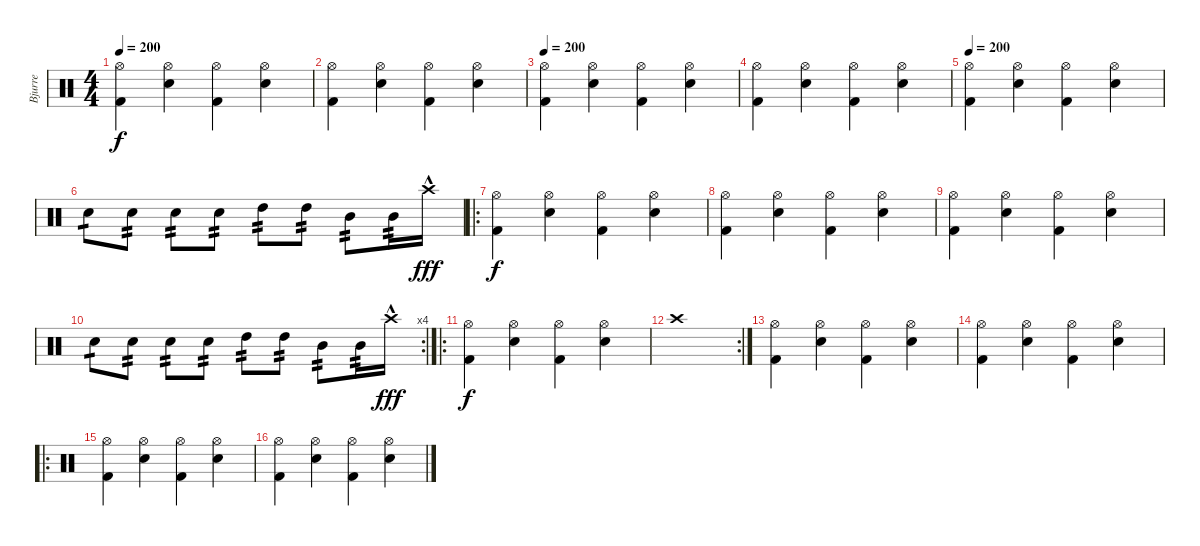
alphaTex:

\track ("Bjurre" "Bjurre") {instrument percussion}
\staff
\articulation defaults
\ts (4 4)
\tempo 200
\clef neutral
\ks c
("Hi-Hat (open)" "Kick (hit) 2").4{dy f} ("Hi-Hat (open)" "Electric Snare (hit)").4 ("Hi-Hat (open)" "Kick (hit) 2").4 ("Hi-Hat (open)" "Electric Snare (hit)").4 |
("Hi-Hat (open)" "Kick (hit) 2").4 ("Hi-Hat (open)" "Electric Snare (hit)").4 ("Hi-Hat (open)" "Kick (hit) 2").4 ("Hi-Hat (open)" "Electric Snare (hit)").4 |
\tempo 200
("Hi-Hat (open)" "Kick (hit) 2").4 ("Hi-Hat (open)" "Electric Snare (hit)").4 ("Hi-Hat (open)" "Kick (hit) 2").4 ("Hi-Hat (open)" "Electric Snare (hit)").4 |
("Hi-Hat (open)" "Kick (hit) 2").4 ("Hi-Hat (open)" "Electric Snare (hit)").4 ("Hi-Hat (open)" "Kick (hit) 2").4 ("Hi-Hat (open)" "Electric Snare (hit)").4 |
\tempo 200
("Hi-Hat (open)" "Kick (hit) 2").4 ("Hi-Hat (open)" "Electric Snare (hit)").4 ("Hi-Hat (open)" "Kick (hit) 2").4 ("Hi-Hat (open)" "Electric Snare (hit)").4 |
"Electric Snare (hit)".8{tp 1} "Electric Snare (hit)".8{tp 2} "Electric Snare (hit)".8{tp 2} "Electric Snare (hit)".8{tp 2} "High Tom (hit)".8{tp 2} "High Tom (hit)".8{tp 2} "Mid Tom (hit)".8{tp 2} "Mid Tom (hit)".16{tp 2} "Crash high (hit)"{hac}.16{dy fff} |
\ro
("Hi-Hat (open)" "Kick (hit) 2").4{dy f} ("Hi-Hat (open)" "Electric Snare (hit)").4 ("Hi-Hat (open)" "Kick (hit) 2").4 ("Hi-Hat (open)" "Electric Snare (hit)").4 |
("Hi-Hat (open)" "Kick (hit) 2").4 ("Hi-Hat (open)" "Electric Snare (hit)").4 ("Hi-Hat (open)" "Kick (hit) 2").4 ("Hi-Hat (open)" "Electric Snare (hit)").4 |
("Hi-Hat (open)" "Kick (hit) 2").4 ("Hi-Hat (open)" "Electric Snare (hit)").4 ("Hi-Hat (open)" "Kick (hit) 2").4 ("Hi-Hat (open)" "Electric Snare (hit)").4 |
\rc 4 "Electric Snare (hit)".8{tp 1} "Electric Snare (hit)".8{tp 2} "Electric Snare (hit)".8{tp 2} "Electric Snare (hit)".8{tp 2} "High Tom (hit)".8{tp 2} "High Tom (hit)".8{tp 2} "Mid Tom (hit)".8{tp 2} "Mid Tom (hit)".16{tp 2} "Crash high (hit)"{hac}.16{dy fff}
|
\ro
("Hi-Hat (open)" "Kick (hit) 2").4{dy f} ("Hi-Hat (open)" "Electric Snare (hit)").4 ("Hi-Hat (open)" "Kick (hit) 2").4 ("Hi-Hat (open)" "Electric Snare (hit)").4 |
\rc 2 "Crash high (hit)".1
|
("Hi-Hat (open)" "Kick (hit) 2").4 ("Hi-Hat (open)" "Electric Snare (hit)").4 ("Hi-Hat (open)" "Kick (hit) 2").4 ("Hi-Hat (open)" "Electric Snare (hit)").4 |
("Hi-Hat (open)" "Kick (hit) 2").4 ("Hi-Hat (open)" "Electric Snare (hit)").4 ("Hi-Hat (open)" "Kick (hit) 2").4 ("Hi-Hat (open)" "Electric Snare (hit)").4 |
\ro
("Hi-Hat (open)" "Kick (hit) 2").4 ("Hi-Hat (open)" "Electric Snare (hit)").4 ("Hi-Hat (open)" "Kick (hit) 2").4 ("Hi-Hat (open)" "Electric Snare (hit)").4 |
("Hi-Hat (open)" "Kick (hit) 2").4 ("Hi-Hat (open)" "Electric Snare (hit)").4 ("Hi-Hat (open)" "Kick (hit) 2").4 ("Hi-Hat (open)" "Electric Snare (hit)").4
